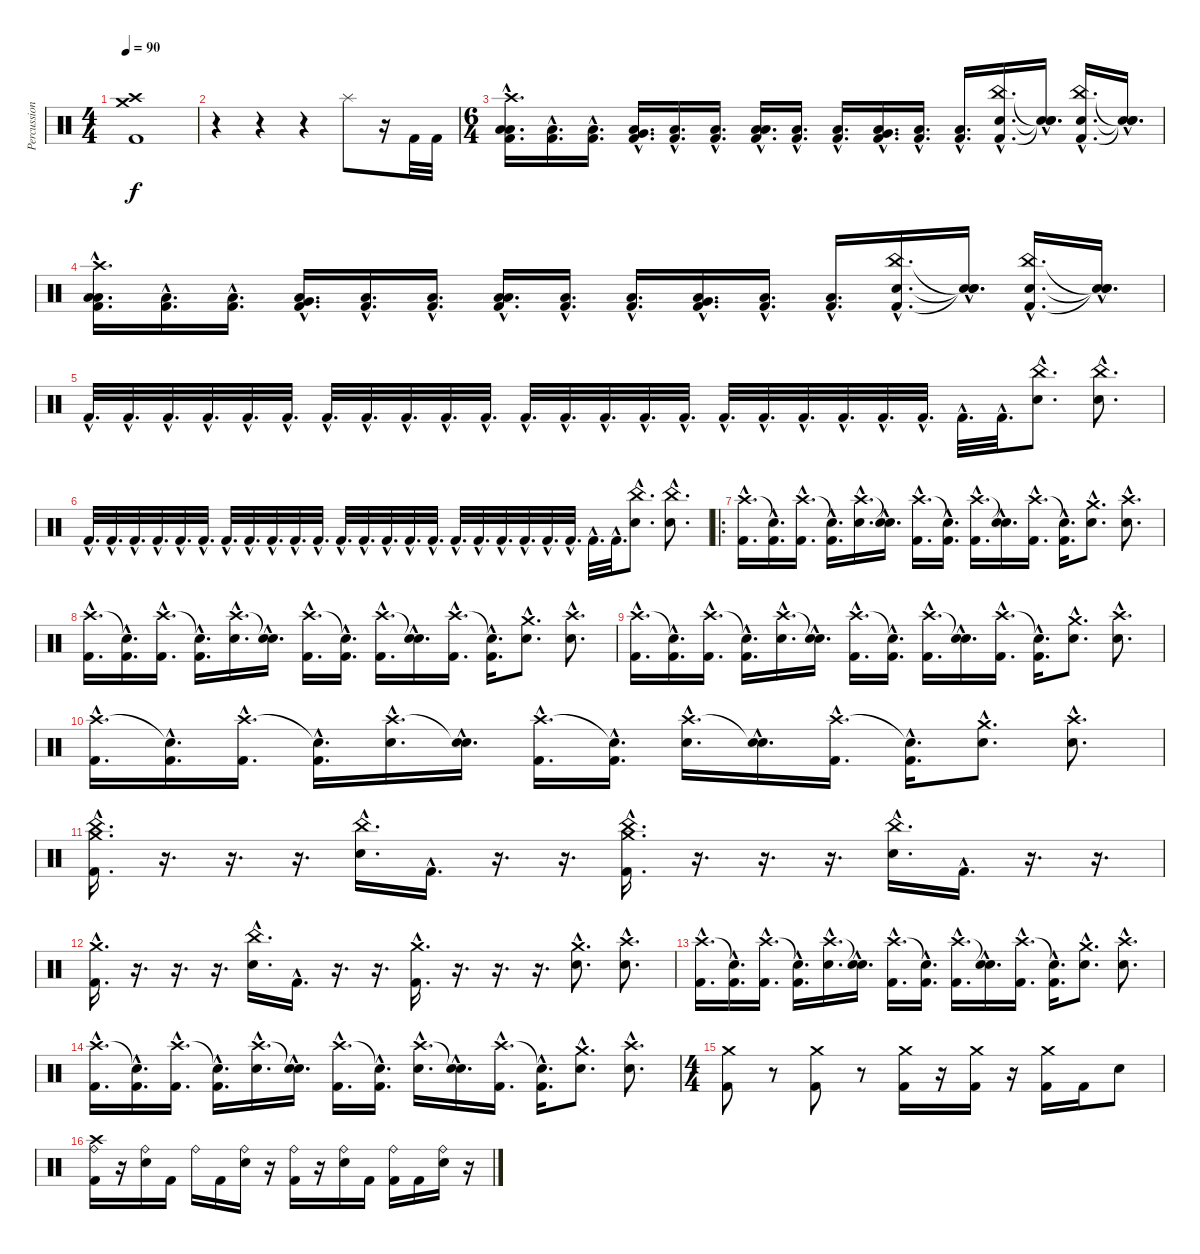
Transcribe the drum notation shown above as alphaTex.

\track ("Percussion" "Percussion") {instrument percussion}
\staff {score}
\articulation defaults
\ts (4 4)
\tempo 90
\clef neutral
\ks c
("Crash medium (hit)" "Crash high (hit)" "Kick (hit) 2").1{dy f} |
r.4 r.4 r.4 "Splash (hit)".8 r.16 "Kick (hit) 2".32 "Kick (hit) 2".32 |
\ts (6 4)
("Crash high (hit)"{hac} "Low Floor Tom (hit)"{hac} "Kick (hit) 2"{hac} "Low Tom (hit)"{hac}).16{d} ("Low Floor Tom (hit)"{hac} "Kick (hit) 2"{hac}).16{d} ("Low Floor Tom (hit)"{hac} "Kick (hit) 2"{hac}).16{d} ("Low Floor Tom (hit)"{hac} "Kick (hit) 2"{hac} "Very Low Tom (hit)"{hac}).16{d} ("Low Floor Tom (hit)"{hac} "Kick (hit) 2"{hac}).16{d} ("Low Floor Tom (hit)"{hac} "Kick (hit) 2"{hac}).16{d} ("Low Floor Tom (hit)"{hac} "Kick (hit) 2"{hac} "Low Tom (hit)"{hac}).16{d} ("Low Floor Tom (hit)"{hac} "Kick (hit) 2"{hac}).16{d} ("Low Floor Tom (hit)"{hac} "Kick (hit) 2"{hac}).16{d} ("Low Floor Tom (hit)"{hac} "Kick (hit) 2"{hac} "Very Low Tom (hit)"{hac}).16{d} ("Low Floor Tom (hit)"{hac} "Kick (hit) 2"{hac}).16{d} ("Low Floor Tom (hit)"{hac} "Kick (hit) 2"{hac}).16{d} ("China (hit)"{hac} "Kick (hit) 2"{hac} "Electric Snare (hit)"{hac}).16{d} ("Snare (hit)"{hac t} "Snare (hit)"{hac t} "Snare (hit)"{hac t}).16{d} ("China (hit)"{hac} "Kick (hit) 2"{hac} "Electric Snare (hit)"{hac}).16{d} ("Snare (hit)"{hac t} "Snare (hit)"{hac t} "Snare (hit)"{hac t}).16{d} |
("Crash high (hit)"{hac} "Low Floor Tom (hit)"{hac} "Kick (hit) 2"{hac} "Low Tom (hit)"{hac}).16{d} ("Low Floor Tom (hit)"{hac} "Kick (hit) 2"{hac}).16{d} ("Low Floor Tom (hit)"{hac} "Kick (hit) 2"{hac}).16{d} ("Low Floor Tom (hit)"{hac} "Kick (hit) 2"{hac} "Very Low Tom (hit)"{hac}).16{d} ("Low Floor Tom (hit)"{hac} "Kick (hit) 2"{hac}).16{d} ("Low Floor Tom (hit)"{hac} "Kick (hit) 2"{hac}).16{d} ("Low Floor Tom (hit)"{hac} "Kick (hit) 2"{hac} "Low Tom (hit)"{hac}).16{d} ("Low Floor Tom (hit)"{hac} "Kick (hit) 2"{hac}).16{d} ("Low Floor Tom (hit)"{hac} "Kick (hit) 2"{hac}).16{d} ("Low Floor Tom (hit)"{hac} "Kick (hit) 2"{hac} "Very Low Tom (hit)"{hac}).16{d} ("Low Floor Tom (hit)"{hac} "Kick (hit) 2"{hac}).16{d} ("Low Floor Tom (hit)"{hac} "Kick (hit) 2"{hac}).16{d} ("China (hit)"{hac} "Kick (hit) 2"{hac} "Electric Snare (hit)"{hac}).16{d} ("Snare (hit)"{hac t} "Snare (hit)"{hac t} "Snare (hit)"{hac t}).16{d} ("China (hit)"{hac} "Kick (hit) 2"{hac} "Electric Snare (hit)"{hac}).16{d} ("Snare (hit)"{hac t} "Snare (hit)"{hac t} "Snare (hit)"{hac t}).16{d} |
"Kick (hit) 2"{hac}.32{d} "Kick (hit) 2"{hac}.32{d} "Kick (hit) 2"{hac}.32{d} "Kick (hit) 2"{hac}.32{d} "Kick (hit) 2"{hac}.32{d} "Kick (hit) 2"{hac}.32{d} "Kick (hit) 2"{hac}.32{d} "Kick (hit) 2"{hac}.32{d} "Kick (hit) 2"{hac}.32{d} "Kick (hit) 2"{hac}.32{d} "Kick (hit) 2"{hac}.32{d} "Kick (hit) 2"{hac}.32{d} "Kick (hit) 2"{hac}.32{d} "Kick (hit) 2"{hac}.32{d} "Kick (hit) 2"{hac}.32{d} "Kick (hit) 2"{hac}.32{d} "Kick (hit) 2"{hac}.32{d} "Kick (hit) 2"{hac}.32{d} "Kick (hit) 2"{hac}.32{d} "Kick (hit) 2"{hac}.32{d} "Kick (hit) 2"{hac}.32{d} "Kick (hit) 2"{hac}.32{d} "Kick (hit) 2"{hac}.32{d} "Kick (hit) 2"{hac}.32{d} ("China (hit)"{hac} "Electric Snare (hit)"{hac}).8{d} ("China (hit)"{hac} "Electric Snare (hit)"{hac}).8{d} |
"Kick (hit) 2"{hac}.32{d} "Kick (hit) 2"{hac}.32{d} "Kick (hit) 2"{hac}.32{d} "Kick (hit) 2"{hac}.32{d} "Kick (hit) 2"{hac}.32{d} "Kick (hit) 2"{hac}.32{d} "Kick (hit) 2"{hac}.32{d} "Kick (hit) 2"{hac}.32{d} "Kick (hit) 2"{hac}.32{d} "Kick (hit) 2"{hac}.32{d} "Kick (hit) 2"{hac}.32{d} "Kick (hit) 2"{hac}.32{d} "Kick (hit) 2"{hac}.32{d} "Kick (hit) 2"{hac}.32{d} "Kick (hit) 2"{hac}.32{d} "Kick (hit) 2"{hac}.32{d} "Kick (hit) 2"{hac}.32{d} "Kick (hit) 2"{hac}.32{d} "Kick (hit) 2"{hac}.32{d} "Kick (hit) 2"{hac}.32{d} "Kick (hit) 2"{hac}.32{d} "Kick (hit) 2"{hac}.32{d} "Kick (hit) 2"{hac}.32{d} "Kick (hit) 2"{hac}.32{d} ("China (hit)"{hac} "Electric Snare (hit)"{hac}).8{d} ("China (hit)"{hac} "Electric Snare (hit)"{hac}).8{d} |
\ro
("Crash high (hit)"{hac} "Kick (hit) 2"{hac}).16{d} ("Snare (hit)"{hac t} "Kick (hit) 2"{hac}).16{d} ("Crash high (hit)"{hac} "Kick (hit) 2"{hac}).16{d} ("Snare (hit)"{hac t} "Kick (hit) 2"{hac}).16{d} ("Crash high (hit)"{hac} "Electric Snare (hit)"{hac}).16{d} ("Snare (hit)"{hac t} "Electric Snare (hit)"{hac}).16{d} ("Crash high (hit)"{hac} "Kick (hit) 2"{hac}).16{d} ("Snare (hit)"{hac t} "Kick (hit) 2"{hac}).16{d} ("Crash high (hit)"{hac} "Kick (hit) 2"{hac}).16{d} ("Snare (hit)"{hac t} "Electric Snare (hit)"{hac}).16{d} ("Crash high (hit)"{hac} "Kick (hit) 2"{hac}).16{d} ("Snare (hit)"{hac t} "Kick (hit) 2"{hac}).16{d} ("Crash medium (hit)"{hac} "Electric Snare (hit)"{hac}).8{d} ("Crash high (hit)"{hac} "Electric Snare (hit)"{hac}).8{d} |
("Crash high (hit)"{hac} "Kick (hit) 2"{hac}).16{d} ("Snare (hit)"{hac t} "Kick (hit) 2"{hac}).16{d} ("Crash high (hit)"{hac} "Kick (hit) 2"{hac}).16{d} ("Snare (hit)"{hac t} "Kick (hit) 2"{hac}).16{d} ("Crash high (hit)"{hac} "Electric Snare (hit)"{hac}).16{d} ("Snare (hit)"{hac t} "Electric Snare (hit)"{hac}).16{d} ("Crash high (hit)"{hac} "Kick (hit) 2"{hac}).16{d} ("Snare (hit)"{hac t} "Kick (hit) 2"{hac}).16{d} ("Crash high (hit)"{hac} "Kick (hit) 2"{hac}).16{d} ("Snare (hit)"{hac t} "Electric Snare (hit)"{hac}).16{d} ("Crash high (hit)"{hac} "Kick (hit) 2"{hac}).16{d} ("Snare (hit)"{hac t} "Kick (hit) 2"{hac}).16{d} ("Crash medium (hit)"{hac} "Electric Snare (hit)"{hac}).8{d} ("Crash high (hit)"{hac} "Electric Snare (hit)"{hac}).8{d} |
("Crash high (hit)"{hac} "Kick (hit) 2"{hac}).16{d} ("Snare (hit)"{hac t} "Kick (hit) 2"{hac}).16{d} ("Crash high (hit)"{hac} "Kick (hit) 2"{hac}).16{d} ("Snare (hit)"{hac t} "Kick (hit) 2"{hac}).16{d} ("Crash high (hit)"{hac} "Electric Snare (hit)"{hac}).16{d} ("Snare (hit)"{hac t} "Electric Snare (hit)"{hac}).16{d} ("Crash high (hit)"{hac} "Kick (hit) 2"{hac}).16{d} ("Snare (hit)"{hac t} "Kick (hit) 2"{hac}).16{d} ("Crash high (hit)"{hac} "Kick (hit) 2"{hac}).16{d} ("Snare (hit)"{hac t} "Electric Snare (hit)"{hac}).16{d} ("Crash high (hit)"{hac} "Kick (hit) 2"{hac}).16{d} ("Snare (hit)"{hac t} "Kick (hit) 2"{hac}).16{d} ("Crash medium (hit)"{hac} "Electric Snare (hit)"{hac}).8{d} ("Crash high (hit)"{hac} "Electric Snare (hit)"{hac}).8{d} |
("Crash high (hit)"{hac} "Kick (hit) 2"{hac}).16{d} ("Snare (hit)"{hac t} "Kick (hit) 2"{hac}).16{d} ("Crash high (hit)"{hac} "Kick (hit) 2"{hac}).16{d} ("Snare (hit)"{hac t} "Kick (hit) 2"{hac}).16{d} ("Crash high (hit)"{hac} "Electric Snare (hit)"{hac}).16{d} ("Snare (hit)"{hac t} "Electric Snare (hit)"{hac}).16{d} ("Crash high (hit)"{hac} "Kick (hit) 2"{hac}).16{d} ("Snare (hit)"{hac t} "Kick (hit) 2"{hac}).16{d} ("Crash high (hit)"{hac} "Electric Snare (hit)"{hac}).16{d} ("Snare (hit)"{hac t} "Electric Snare (hit)"{hac}).16{d} ("Crash high (hit)"{hac} "Kick (hit) 2"{hac}).16{d} ("Snare (hit)"{hac t} "Kick (hit) 2"{hac}).16{d} ("Crash medium (hit)"{hac} "Electric Snare (hit)"{hac}).8{d} ("Crash high (hit)"{hac} "Electric Snare (hit)"{hac}).8{d} |
("Crash medium (hit)"{hac} "China (hit)"{hac} "Kick (hit) 2"{hac}).16{d} r.16{d} r.16{d} r.16{d} ("China (hit)"{hac} "Electric Snare (hit)"{hac}).16{d} "Kick (hit) 2"{hac}.16{d} r.16{d} r.16{d} ("Crash medium (hit)"{hac} "China (hit)"{hac} "Kick (hit) 2"{hac}).16{d} r.16{d} r.16{d} r.16{d} ("China (hit)"{hac} "Electric Snare (hit)"{hac}).16{d} "Kick (hit) 2"{hac}.16{d} r.16{d} r.16{d} |
("Crash medium (hit)"{hac} "Kick (hit) 2"{hac}).16{d} r.16{d} r.16{d} r.16{d} ("China (hit)"{hac} "Electric Snare (hit)"{hac}).16{d} "Kick (hit) 2"{hac}.16{d} r.16{d} r.16{d} ("Crash medium (hit)"{hac} "Kick (hit) 2"{hac}).16{d} r.16{d} r.16{d} r.16{d} ("Crash medium (hit)"{hac} "Electric Snare (hit)"{hac}).8{d} ("Crash high (hit)"{hac} "Electric Snare (hit)"{hac}).8{d} |
("Crash high (hit)"{hac} "Kick (hit) 2"{hac}).16{d} ("Snare (hit)"{hac t} "Kick (hit) 2"{hac}).16{d} ("Crash high (hit)"{hac} "Kick (hit) 2"{hac}).16{d} ("Snare (hit)"{hac t} "Kick (hit) 2"{hac}).16{d} ("Crash high (hit)"{hac} "Electric Snare (hit)"{hac}).16{d} ("Snare (hit)"{hac t} "Electric Snare (hit)"{hac}).16{d} ("Crash high (hit)"{hac} "Kick (hit) 2"{hac}).16{d} ("Snare (hit)"{hac t} "Kick (hit) 2"{hac}).16{d} ("Crash high (hit)"{hac} "Kick (hit) 2"{hac}).16{d} ("Snare (hit)"{hac t} "Electric Snare (hit)"{hac}).16{d} ("Crash high (hit)"{hac} "Kick (hit) 2"{hac}).16{d} ("Snare (hit)"{hac t} "Kick (hit) 2"{hac}).16{d} ("Crash medium (hit)"{hac} "Electric Snare (hit)"{hac}).8{d} ("Crash high (hit)"{hac} "Electric Snare (hit)"{hac}).8{d} |
("Crash high (hit)"{hac} "Kick (hit) 2"{hac}).16{d} ("Snare (hit)"{hac t} "Kick (hit) 2"{hac}).16{d} ("Crash high (hit)"{hac} "Kick (hit) 2"{hac}).16{d} ("Snare (hit)"{hac t} "Kick (hit) 2"{hac}).16{d} ("Crash high (hit)"{hac} "Electric Snare (hit)"{hac}).16{d} ("Snare (hit)"{hac t} "Electric Snare (hit)"{hac}).16{d} ("Crash high (hit)"{hac} "Kick (hit) 2"{hac}).16{d} ("Snare (hit)"{hac t} "Kick (hit) 2"{hac}).16{d} ("Crash high (hit)"{hac} "Electric Snare (hit)"{hac}).16{d} ("Snare (hit)"{hac t} "Electric Snare (hit)"{hac}).16{d} ("Crash high (hit)"{hac} "Kick (hit) 2"{hac}).16{d} ("Snare (hit)"{hac t} "Kick (hit) 2"{hac}).16{d} ("Crash medium (hit)"{hac} "Electric Snare (hit)"{hac}).8{d} ("Crash high (hit)"{hac} "Electric Snare (hit)"{hac}).8{d} |
\ts (4 4)
("Crash medium (hit)" "Kick (hit) 2").8 r.8 ("Crash medium (hit)" "Kick (hit) 2").8 r.8 ("Crash medium (hit)" "Kick (hit) 2").16 r.16 ("Crash medium (hit)" "Kick (hit) 2").16 r.16 ("Crash medium (hit)" "Kick (hit) 2").16 "Kick (hit) 2".16 "Electric Snare (hit)".8 |
("Crash high (hit)" "Ride (bell)" "Kick (hit) 2").16 r.16 ("Ride (bell)" "Electric Snare (hit)").16 "Kick (hit) 2".16 "Ride (bell)".16 "Kick (hit) 2".16 ("Ride (bell)" "Electric Snare (hit)").16 r.16 ("Ride (bell)" "Kick (hit) 2").16 r.16 ("Ride (bell)" "Electric Snare (hit)").16 "Kick (hit) 2".16 ("Ride (bell)" "Kick (hit) 2").16 "Kick (hit) 2".16 ("Ride (bell)" "Electric Snare (hit)").16 r.16
